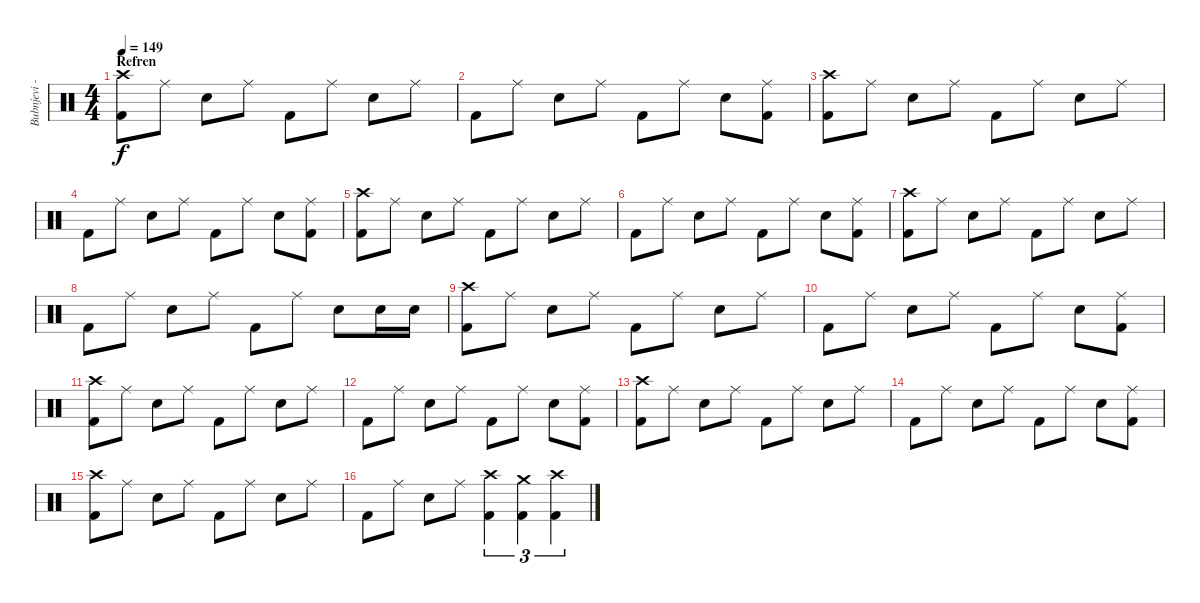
\track ("Bubnjevi - Vladan Cvetkovic" "Bubnjevi -") {instrument percussion}
\staff {score}
\articulation defaults
\ts (4 4)
\section ("" "Refren")
\tempo 149
\clef neutral
\ks c
("Crash high (hit)" "Kick (hit) 2").8{dy f} "Ride (middle)".8 "Electric Snare (hit)".8 "Ride (middle)".8 "Kick (hit) 2".8 "Ride (middle)".8 "Electric Snare (hit)".8 "Ride (middle)".8 |
"Kick (hit) 2".8 "Ride (middle)".8 "Electric Snare (hit)".8 "Ride (middle)".8 "Kick (hit) 2".8 "Ride (middle)".8 "Electric Snare (hit)".8 ("Ride (middle)" "Kick (hit) 2").8 |
("Crash high (hit)" "Kick (hit) 2").8 "Ride (middle)".8 "Electric Snare (hit)".8 "Ride (middle)".8 "Kick (hit) 2".8 "Ride (middle)".8 "Electric Snare (hit)".8 "Ride (middle)".8 |
"Kick (hit) 2".8 "Ride (middle)".8 "Electric Snare (hit)".8 "Ride (middle)".8 "Kick (hit) 2".8 "Ride (middle)".8 "Electric Snare (hit)".8 ("Ride (middle)" "Kick (hit) 2").8 |
("Crash high (hit)" "Kick (hit) 2").8 "Ride (middle)".8 "Electric Snare (hit)".8 "Ride (middle)".8 "Kick (hit) 2".8 "Ride (middle)".8 "Electric Snare (hit)".8 "Ride (middle)".8 |
"Kick (hit) 2".8 "Ride (middle)".8 "Electric Snare (hit)".8 "Ride (middle)".8 "Kick (hit) 2".8 "Ride (middle)".8 "Electric Snare (hit)".8 ("Ride (middle)" "Kick (hit) 2").8 |
("Crash high (hit)" "Kick (hit) 2").8 "Ride (middle)".8 "Electric Snare (hit)".8 "Ride (middle)".8 "Kick (hit) 2".8 "Ride (middle)".8 "Electric Snare (hit)".8 "Ride (middle)".8 |
"Kick (hit) 2".8 "Ride (middle)".8 "Electric Snare (hit)".8 "Ride (middle)".8 "Kick (hit) 2".8 "Ride (middle)".8 "Electric Snare (hit)".8 "Electric Snare (hit)".16 "Electric Snare (hit)".16 |
("Crash high (hit)" "Kick (hit) 2").8 "Ride (middle)".8 "Electric Snare (hit)".8 "Ride (middle)".8 "Kick (hit) 2".8 "Ride (middle)".8 "Electric Snare (hit)".8 "Ride (middle)".8 |
"Kick (hit) 2".8 "Ride (middle)".8 "Electric Snare (hit)".8 "Ride (middle)".8 "Kick (hit) 2".8 "Ride (middle)".8 "Electric Snare (hit)".8 ("Ride (middle)" "Kick (hit) 2").8 |
("Crash high (hit)" "Kick (hit) 2").8 "Ride (middle)".8 "Electric Snare (hit)".8 "Ride (middle)".8 "Kick (hit) 2".8 "Ride (middle)".8 "Electric Snare (hit)".8 "Ride (middle)".8 |
"Kick (hit) 2".8 "Ride (middle)".8 "Electric Snare (hit)".8 "Ride (middle)".8 "Kick (hit) 2".8 "Ride (middle)".8 "Electric Snare (hit)".8 ("Ride (middle)" "Kick (hit) 2").8 |
("Crash high (hit)" "Kick (hit) 2").8 "Ride (middle)".8 "Electric Snare (hit)".8 "Ride (middle)".8 "Kick (hit) 2".8 "Ride (middle)".8 "Electric Snare (hit)".8 "Ride (middle)".8 |
"Kick (hit) 2".8 "Ride (middle)".8 "Electric Snare (hit)".8 "Ride (middle)".8 "Kick (hit) 2".8 "Ride (middle)".8 "Electric Snare (hit)".8 ("Ride (middle)" "Kick (hit) 2").8 |
("Crash high (hit)" "Kick (hit) 2").8 "Ride (middle)".8 "Electric Snare (hit)".8 "Ride (middle)".8 "Kick (hit) 2".8 "Ride (middle)".8 "Electric Snare (hit)".8 "Ride (middle)".8 |
"Kick (hit) 2".8 "Ride (middle)".8 "Electric Snare (hit)".8 "Ride (middle)".8 ("Crash high (hit)" "Kick (hit) 2").4{tu (3 2)} ("Crash medium (hit)" "Kick (hit) 2").4{tu (3 2)} ("Crash high (hit)" "Kick (hit) 2").4{tu (3 2)}
